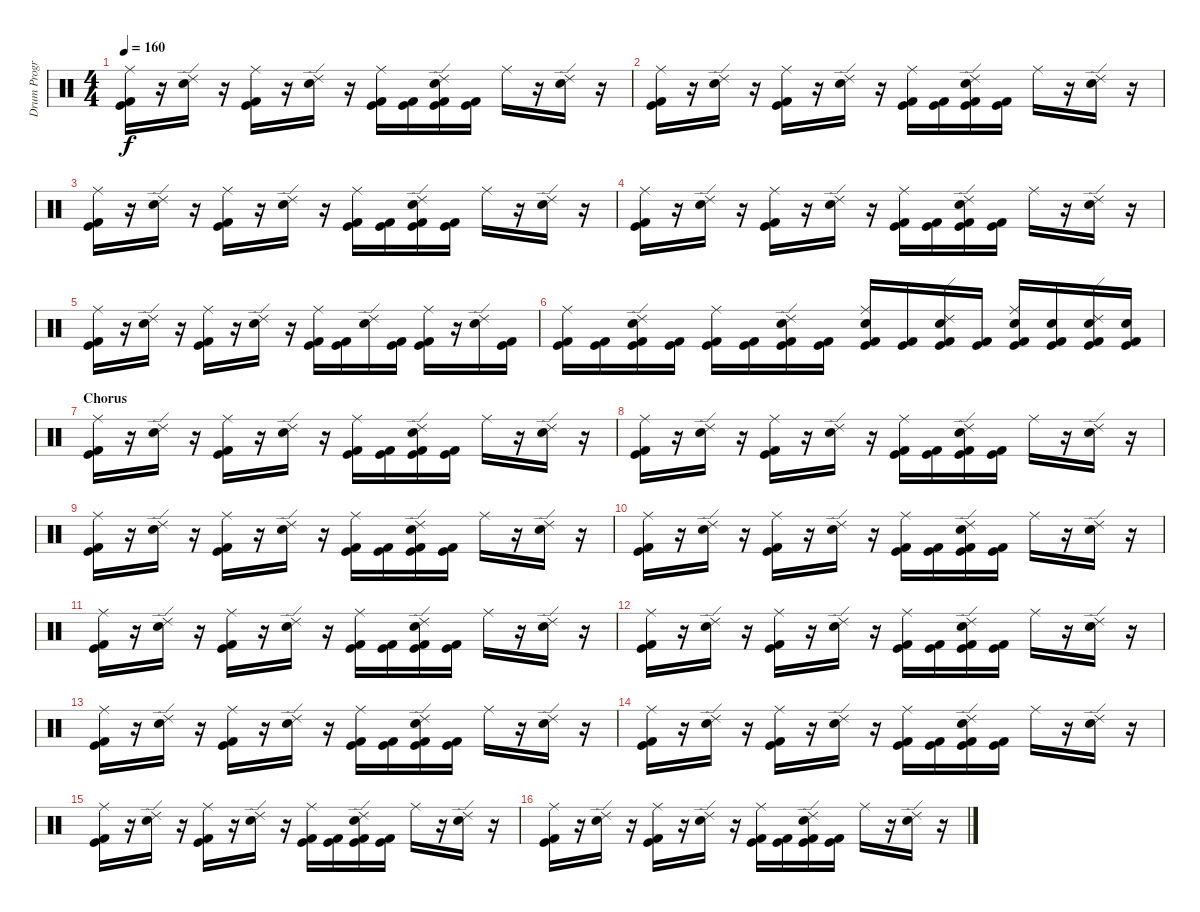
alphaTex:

\track ("Drum Program - BG" "Drum Progr") {instrument percussion}
\staff {score}
\articulation defaults
\ts (4 4)
\tempo 160
\clef neutral
\ks c
("Kick (hit) 2" "Kick (hit)" "Ride (middle)").16{dy f} r.16 ("Electric Snare (hit)" "Ride (edge) 2").16 r.16 ("Kick (hit)" "Kick (hit) 2" "Ride (middle)").16 r.16 ("Electric Snare (hit)" "Ride (edge) 2").16 r.16 ("Kick (hit)" "Kick (hit) 2" "Ride (middle)").16 ("Kick (hit)" "Kick (hit) 2").16 ("Kick (hit)" "Kick (hit) 2" "Electric Snare (hit)" "Ride (edge) 2").16 ("Kick (hit)" "Kick (hit) 2").16 "Ride (middle)".16 r.16 ("Electric Snare (hit)" "Ride (edge) 2").16 r.16 |
("Kick (hit) 2" "Kick (hit)" "Ride (middle)").16 r.16 ("Electric Snare (hit)" "Ride (edge) 2").16 r.16 ("Kick (hit)" "Kick (hit) 2" "Ride (middle)").16 r.16 ("Electric Snare (hit)" "Ride (edge) 2").16 r.16 ("Kick (hit)" "Kick (hit) 2" "Ride (middle)").16 ("Kick (hit)" "Kick (hit) 2").16 ("Kick (hit)" "Kick (hit) 2" "Electric Snare (hit)" "Ride (edge) 2").16 ("Kick (hit)" "Kick (hit) 2").16 "Ride (middle)".16 r.16 ("Electric Snare (hit)" "Ride (edge) 2").16 r.16 |
("Kick (hit) 2" "Kick (hit)" "Ride (middle)").16 r.16 ("Electric Snare (hit)" "Ride (edge) 2").16 r.16 ("Kick (hit)" "Kick (hit) 2" "Ride (middle)").16 r.16 ("Electric Snare (hit)" "Ride (edge) 2").16 r.16 ("Kick (hit)" "Kick (hit) 2" "Ride (middle)").16 ("Kick (hit)" "Kick (hit) 2").16 ("Kick (hit)" "Kick (hit) 2" "Electric Snare (hit)" "Ride (edge) 2").16 ("Kick (hit)" "Kick (hit) 2").16 "Ride (middle)".16 r.16 ("Electric Snare (hit)" "Ride (edge) 2").16 r.16 |
("Kick (hit) 2" "Kick (hit)" "Ride (middle)").16 r.16 ("Electric Snare (hit)" "Ride (edge) 2").16 r.16 ("Kick (hit)" "Kick (hit) 2" "Ride (middle)").16 r.16 ("Electric Snare (hit)" "Ride (edge) 2").16 r.16 ("Kick (hit)" "Kick (hit) 2" "Ride (middle)").16 ("Kick (hit)" "Kick (hit) 2").16 ("Kick (hit)" "Kick (hit) 2" "Electric Snare (hit)" "Ride (edge) 2").16 ("Kick (hit)" "Kick (hit) 2").16 "Ride (middle)".16 r.16 ("Electric Snare (hit)" "Ride (edge) 2").16 r.16 |
("Kick (hit) 2" "Kick (hit)" "Ride (middle)").16 r.16 ("Electric Snare (hit)" "Ride (edge) 2").16 r.16 ("Kick (hit)" "Kick (hit) 2" "Ride (middle)").16 r.16 ("Electric Snare (hit)" "Ride (edge) 2").16 r.16 ("Kick (hit)" "Kick (hit) 2" "Ride (middle)").16 ("Kick (hit)" "Kick (hit) 2").16 ("Electric Snare (hit)" "Ride (edge) 2").16 ("Kick (hit)" "Kick (hit) 2").16 ("Kick (hit)" "Kick (hit) 2" "Ride (middle)").16 r.16 ("Electric Snare (hit)" "Ride (edge) 2").16 ("Kick (hit)" "Kick (hit) 2").16 |
("Kick (hit)" "Kick (hit) 2" "Ride (middle)").16 ("Kick (hit)" "Kick (hit) 2").16 ("Kick (hit)" "Kick (hit) 2" "Electric Snare (hit)" "Ride (edge) 2").16 ("Kick (hit)" "Kick (hit) 2").16 ("Kick (hit)" "Kick (hit) 2" "Ride (middle)").16 ("Kick (hit)" "Kick (hit) 2").16 ("Kick (hit)" "Kick (hit) 2" "Electric Snare (hit)" "Ride (edge) 2").16 ("Kick (hit)" "Kick (hit) 2").16 ("Kick (hit)" "Kick (hit) 2" "Electric Snare (hit)" "Ride (middle)").16 ("Kick (hit)" "Kick (hit) 2").16 ("Kick (hit)" "Kick (hit) 2" "Electric Snare (hit)" "Ride (edge) 2").16 ("Kick (hit)" "Kick (hit) 2").16 ("Kick (hit)" "Kick (hit) 2" "Electric Snare (hit)" "Ride (middle)").16 ("Kick (hit)" "Kick (hit) 2" "Electric Snare (hit)").16 ("Kick (hit)" "Kick (hit) 2" "Electric Snare (hit)" "Ride (edge) 2").16 ("Kick (hit)" "Kick (hit) 2" "Electric Snare (hit)").16 |
\section ("" "Chorus")
("Kick (hit) 2" "Kick (hit)" "Ride (middle)").16 r.16 ("Electric Snare (hit)" "Ride (edge) 2").16 r.16 ("Kick (hit)" "Kick (hit) 2" "Ride (middle)").16 r.16 ("Electric Snare (hit)" "Ride (edge) 2").16 r.16 ("Kick (hit)" "Kick (hit) 2" "Ride (middle)").16 ("Kick (hit)" "Kick (hit) 2").16 ("Kick (hit)" "Kick (hit) 2" "Electric Snare (hit)" "Ride (edge) 2").16 ("Kick (hit)" "Kick (hit) 2").16 "Ride (middle)".16 r.16 ("Electric Snare (hit)" "Ride (edge) 2").16 r.16 |
("Kick (hit) 2" "Kick (hit)" "Ride (middle)").16 r.16 ("Electric Snare (hit)" "Ride (edge) 2").16 r.16 ("Kick (hit)" "Kick (hit) 2" "Ride (middle)").16 r.16 ("Electric Snare (hit)" "Ride (edge) 2").16 r.16 ("Kick (hit)" "Kick (hit) 2" "Ride (middle)").16 ("Kick (hit)" "Kick (hit) 2").16 ("Kick (hit)" "Kick (hit) 2" "Electric Snare (hit)" "Ride (edge) 2").16 ("Kick (hit)" "Kick (hit) 2").16 "Ride (middle)".16 r.16 ("Electric Snare (hit)" "Ride (edge) 2").16 r.16 |
("Kick (hit) 2" "Kick (hit)" "Ride (middle)").16 r.16 ("Electric Snare (hit)" "Ride (edge) 2").16 r.16 ("Kick (hit)" "Kick (hit) 2" "Ride (middle)").16 r.16 ("Electric Snare (hit)" "Ride (edge) 2").16 r.16 ("Kick (hit)" "Kick (hit) 2" "Ride (middle)").16 ("Kick (hit)" "Kick (hit) 2").16 ("Kick (hit)" "Kick (hit) 2" "Electric Snare (hit)" "Ride (edge) 2").16 ("Kick (hit)" "Kick (hit) 2").16 "Ride (middle)".16 r.16 ("Electric Snare (hit)" "Ride (edge) 2").16 r.16 |
("Kick (hit) 2" "Kick (hit)" "Ride (middle)").16 r.16 ("Electric Snare (hit)" "Ride (edge) 2").16 r.16 ("Kick (hit)" "Kick (hit) 2" "Ride (middle)").16 r.16 ("Electric Snare (hit)" "Ride (edge) 2").16 r.16 ("Kick (hit)" "Kick (hit) 2" "Ride (middle)").16 ("Kick (hit)" "Kick (hit) 2").16 ("Kick (hit)" "Kick (hit) 2" "Electric Snare (hit)" "Ride (edge) 2").16 ("Kick (hit)" "Kick (hit) 2").16 "Ride (middle)".16 r.16 ("Electric Snare (hit)" "Ride (edge) 2").16 r.16 |
("Kick (hit) 2" "Kick (hit)" "Ride (middle)").16 r.16 ("Electric Snare (hit)" "Ride (edge) 2").16 r.16 ("Kick (hit)" "Kick (hit) 2" "Ride (middle)").16 r.16 ("Electric Snare (hit)" "Ride (edge) 2").16 r.16 ("Kick (hit)" "Kick (hit) 2" "Ride (middle)").16 ("Kick (hit)" "Kick (hit) 2").16 ("Kick (hit)" "Kick (hit) 2" "Electric Snare (hit)" "Ride (edge) 2").16 ("Kick (hit)" "Kick (hit) 2").16 "Ride (middle)".16 r.16 ("Electric Snare (hit)" "Ride (edge) 2").16 r.16 |
("Kick (hit) 2" "Kick (hit)" "Ride (middle)").16 r.16 ("Electric Snare (hit)" "Ride (edge) 2").16 r.16 ("Kick (hit)" "Kick (hit) 2" "Ride (middle)").16 r.16 ("Electric Snare (hit)" "Ride (edge) 2").16 r.16 ("Kick (hit)" "Kick (hit) 2" "Ride (middle)").16 ("Kick (hit)" "Kick (hit) 2").16 ("Kick (hit)" "Kick (hit) 2" "Electric Snare (hit)" "Ride (edge) 2").16 ("Kick (hit)" "Kick (hit) 2").16 "Ride (middle)".16 r.16 ("Electric Snare (hit)" "Ride (edge) 2").16 r.16 |
("Kick (hit) 2" "Kick (hit)" "Ride (middle)").16 r.16 ("Electric Snare (hit)" "Ride (edge) 2").16 r.16 ("Kick (hit)" "Kick (hit) 2" "Ride (middle)").16 r.16 ("Electric Snare (hit)" "Ride (edge) 2").16 r.16 ("Kick (hit)" "Kick (hit) 2" "Ride (middle)").16 ("Kick (hit)" "Kick (hit) 2").16 ("Kick (hit)" "Kick (hit) 2" "Electric Snare (hit)" "Ride (edge) 2").16 ("Kick (hit)" "Kick (hit) 2").16 "Ride (middle)".16 r.16 ("Electric Snare (hit)" "Ride (edge) 2").16 r.16 |
("Kick (hit) 2" "Kick (hit)" "Ride (middle)").16 r.16 ("Electric Snare (hit)" "Ride (edge) 2").16 r.16 ("Kick (hit)" "Kick (hit) 2" "Ride (middle)").16 r.16 ("Electric Snare (hit)" "Ride (edge) 2").16 r.16 ("Kick (hit)" "Kick (hit) 2" "Ride (middle)").16 ("Kick (hit)" "Kick (hit) 2").16 ("Kick (hit)" "Kick (hit) 2" "Electric Snare (hit)" "Ride (edge) 2").16 ("Kick (hit)" "Kick (hit) 2").16 "Ride (middle)".16 r.16 ("Electric Snare (hit)" "Ride (edge) 2").16 r.16 |
("Kick (hit) 2" "Kick (hit)" "Ride (middle)").16 r.16 ("Electric Snare (hit)" "Ride (edge) 2").16 r.16 ("Kick (hit)" "Kick (hit) 2" "Ride (middle)").16 r.16 ("Electric Snare (hit)" "Ride (edge) 2").16 r.16 ("Kick (hit)" "Kick (hit) 2" "Ride (middle)").16 ("Kick (hit)" "Kick (hit) 2").16 ("Kick (hit)" "Kick (hit) 2" "Electric Snare (hit)" "Ride (edge) 2").16 ("Kick (hit)" "Kick (hit) 2").16 "Ride (middle)".16 r.16 ("Electric Snare (hit)" "Ride (edge) 2").16 r.16 |
("Kick (hit) 2" "Kick (hit)" "Ride (middle)").16 r.16 ("Electric Snare (hit)" "Ride (edge) 2").16 r.16 ("Kick (hit)" "Kick (hit) 2" "Ride (middle)").16 r.16 ("Electric Snare (hit)" "Ride (edge) 2").16 r.16 ("Kick (hit)" "Kick (hit) 2" "Ride (middle)").16 ("Kick (hit)" "Kick (hit) 2").16 ("Kick (hit)" "Kick (hit) 2" "Electric Snare (hit)" "Ride (edge) 2").16 ("Kick (hit)" "Kick (hit) 2").16 "Ride (middle)".16 r.16 ("Electric Snare (hit)" "Ride (edge) 2").16 r.16
